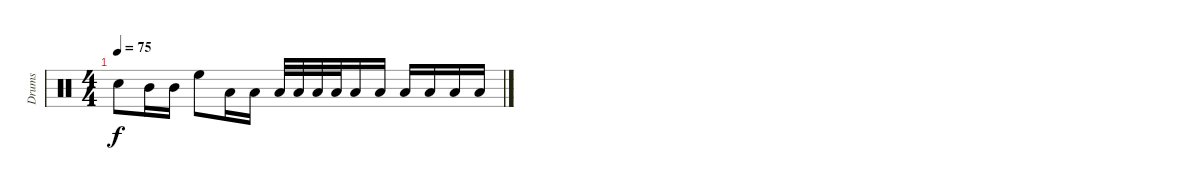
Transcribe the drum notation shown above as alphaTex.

\track ("Drums" "Drums") {instrument percussion}
\staff {score}
\articulation defaults
\ts (4 4)
\tempo 75
\clef neutral
\ks c "Snare (hit) 2".8{dy f} "Mid Tom (hit)".16 "Mid Tom (hit)".16 "High Floor Tom (hit)".8 "Low Tom (hit)".16 "Low Tom (hit)".16 "Low Tom (hit)".32 "Low Tom (hit)".32 "Low Tom (hit)".32 "Low Tom (hit)".32 "Low Floor Tom (hit)".16 "Low Floor Tom (hit)".16 "Low Floor Tom (hit)".16 "Low Floor Tom (hit)".16 "Low Floor Tom (hit)".16 "Low Floor Tom (hit)".16
